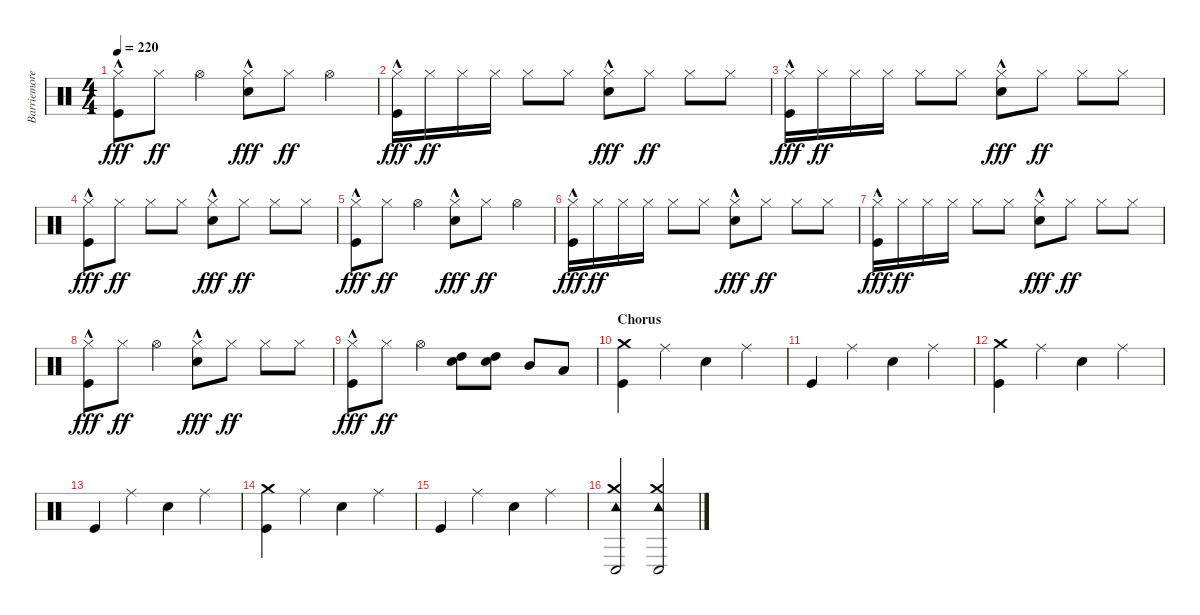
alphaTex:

\track ("Barriemore Barlow (Drums)" "Barriemore") {instrument percussion}
\staff {score}
\articulation defaults
\ts (4 4)
\tempo 220
\clef neutral
\ks c
("Kick (hit)"{hac} "Hi-Hat (closed)").8{dy fff} "Hi-Hat (closed)".8{dy ff} "Hi-Hat (open)".4 ("Snare (hit) 2"{hac} "Hi-Hat (closed)").8{dy fff} "Hi-Hat (closed)".8{dy ff} "Hi-Hat (open)".4 |
("Kick (hit)"{hac} "Hi-Hat (closed)").16{dy fff} "Hi-Hat (closed)".16{dy ff} "Hi-Hat (closed)".16 "Hi-Hat (closed)".16 "Hi-Hat (closed)".8 "Hi-Hat (closed)".8 ("Snare (hit) 2"{hac} "Hi-Hat (closed)").8{dy fff} "Hi-Hat (closed)".8{dy ff} "Hi-Hat (closed)".8 "Hi-Hat (closed)".8 |
("Kick (hit)"{hac} "Hi-Hat (closed)").16{dy fff} "Hi-Hat (closed)".16{dy ff} "Hi-Hat (closed)".16 "Hi-Hat (closed)".16 "Hi-Hat (closed)".8 "Hi-Hat (closed)".8 ("Snare (hit) 2"{hac} "Hi-Hat (closed)").8{dy fff} "Hi-Hat (closed)".8{dy ff} "Hi-Hat (closed)".8 "Hi-Hat (closed)".8 |
("Kick (hit)"{hac} "Hi-Hat (closed)").8{dy fff} "Hi-Hat (closed)".8{dy ff} "Hi-Hat (closed)".8 "Hi-Hat (closed)".8 ("Snare (hit) 2"{hac} "Hi-Hat (closed)").8{dy fff} "Hi-Hat (closed)".8{dy ff} "Hi-Hat (closed)".8 "Hi-Hat (closed)".8 |
("Kick (hit)"{hac} "Hi-Hat (closed)").8{dy fff} "Hi-Hat (closed)".8{dy ff} "Hi-Hat (open)".4 ("Snare (hit) 2"{hac} "Hi-Hat (closed)").8{dy fff} "Hi-Hat (closed)".8{dy ff} "Hi-Hat (open)".4 |
("Kick (hit)"{hac} "Hi-Hat (closed)").16{dy fff} "Hi-Hat (closed)".16{dy ff} "Hi-Hat (closed)".16 "Hi-Hat (closed)".16 "Hi-Hat (closed)".8 "Hi-Hat (closed)".8 ("Snare (hit) 2"{hac} "Hi-Hat (closed)").8{dy fff} "Hi-Hat (closed)".8{dy ff} "Hi-Hat (closed)".8 "Hi-Hat (closed)".8 |
("Kick (hit)"{hac} "Hi-Hat (closed)").16{dy fff} "Hi-Hat (closed)".16{dy ff} "Hi-Hat (closed)".16 "Hi-Hat (closed)".16 "Hi-Hat (closed)".8 "Hi-Hat (closed)".8 ("Snare (hit) 2"{hac} "Hi-Hat (closed)").8{dy fff} "Hi-Hat (closed)".8{dy ff} "Hi-Hat (closed)".8 "Hi-Hat (closed)".8 |
("Kick (hit)"{hac} "Hi-Hat (closed)").8{dy fff} "Hi-Hat (closed)".8{dy ff} "Hi-Hat (open)".4 ("Snare (hit) 2"{hac} "Hi-Hat (closed)").8{dy fff} "Hi-Hat (closed)".8{dy ff} "Hi-Hat (closed)".8 "Hi-Hat (closed)".8 |
("Kick (hit)"{hac} "Hi-Hat (closed)").8{dy fff} "Hi-Hat (closed)".8{dy ff} "Hi-Hat (open)".4 ("Snare (hit) 2" "High Tom (hit)").8 ("Snare (hit) 2" "High Tom (hit)").8 "Mid Tom (hit)".8 "Low Tom (hit)".8 |
\section ("" "Chorus")
("Kick (hit)" "Crash medium (hit)").4 "Ride (middle)".4 "Snare (hit) 2".4 "Ride (middle)".4 |
"Kick (hit)".4 "Ride (middle)".4 "Snare (hit) 2".4 "Ride (middle)".4 |
("Kick (hit)" "Crash medium (hit)").4 "Ride (middle)".4 "Snare (hit) 2".4 "Ride (middle)".4 |
"Kick (hit)".4 "Ride (middle)".4 "Snare (hit) 2".4 "Ride (middle)".4 |
("Kick (hit)" "Crash medium (hit)").4 "Ride (middle)".4 "Snare (hit) 2".4 "Ride (middle)".4 |
"Kick (hit)".4 "Ride (middle)".4 "Snare (hit) 2".4 "Ride (middle)".4 |
("Tambourine (hit)" "Crash medium (hit)" "Conga low (hit)").2 ("Tambourine (hit)" "Crash medium (hit)" "Conga low (hit)").2
